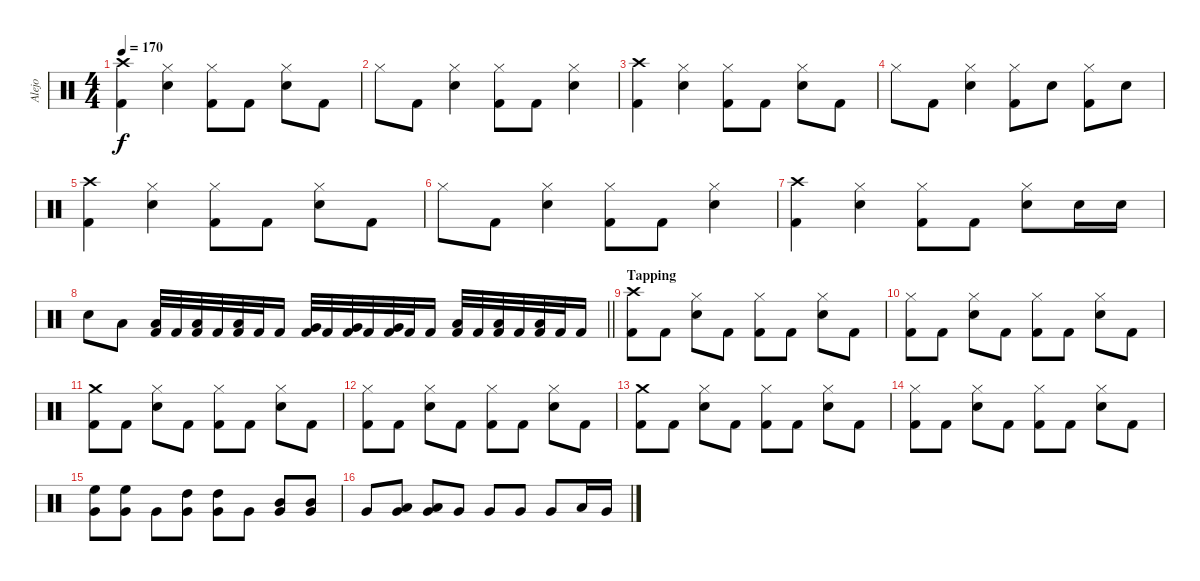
\track ("Alejo" "Alejo") {instrument percussion}
\staff {score}
\articulation defaults
\ts (4 4)
\tempo 170
\clef neutral
\ks c
("Crash high (hit)" "Kick (hit) 2").4{dy f} ("Snare (hit) 2" "Hi-Hat (closed)").4 ("Kick (hit) 2" "Hi-Hat (closed)").8 "Kick (hit) 2".8 ("Snare (hit) 2" "Hi-Hat (closed)").8 "Kick (hit) 2".8 |
"Hi-Hat (closed)".8 "Kick (hit) 2".8 ("Snare (hit) 2" "Hi-Hat (closed)").4 ("Kick (hit) 2" "Hi-Hat (closed)").8 "Kick (hit) 2".8 ("Snare (hit) 2" "Hi-Hat (closed)").4 |
("Crash high (hit)" "Kick (hit) 2").4 ("Snare (hit) 2" "Hi-Hat (closed)").4 ("Kick (hit) 2" "Hi-Hat (closed)").8 "Kick (hit) 2".8 ("Snare (hit) 2" "Hi-Hat (closed)").8 "Kick (hit) 2".8 |
"Hi-Hat (closed)".8 "Kick (hit) 2".8 ("Snare (hit) 2" "Hi-Hat (closed)").4 ("Kick (hit) 2" "Hi-Hat (closed)").8 "Snare (hit) 2".8 ("Kick (hit) 2" "Hi-Hat (closed)").8 "Snare (hit) 2".8 |
("Crash high (hit)" "Kick (hit) 2").4 ("Snare (hit) 2" "Hi-Hat (closed)").4 ("Kick (hit) 2" "Hi-Hat (closed)").8 "Kick (hit) 2".8 ("Snare (hit) 2" "Hi-Hat (closed)").8 "Kick (hit) 2".8 |
"Hi-Hat (closed)".8 "Kick (hit) 2".8 ("Snare (hit) 2" "Hi-Hat (closed)").4 ("Kick (hit) 2" "Hi-Hat (closed)").8 "Kick (hit) 2".8 ("Snare (hit) 2" "Hi-Hat (closed)").4 |
("Crash high (hit)" "Kick (hit) 2").4 ("Snare (hit) 2" "Hi-Hat (closed)").4 ("Kick (hit) 2" "Hi-Hat (closed)").8 "Kick (hit) 2".8 ("Snare (hit) 2" "Hi-Hat (closed)").8 "Snare (hit) 2".16 "Snare (hit) 2".16 |
\barLineRight lightlight "Snare (hit) 2".8 "Low Tom (hit)".8
("Kick (hit) 2" "Low Tom (hit)").32 "Kick (hit) 2".32 ("Kick (hit) 2" "Low Tom (hit)").32 "Kick (hit) 2".32 ("Kick (hit) 2" "Low Tom (hit)").32 "Kick (hit) 2".32 "Kick (hit) 2".16 ("Kick (hit) 2" "Very Low Tom (hit)").32 "Kick (hit) 2".32 ("Kick (hit) 2" "Very Low Tom (hit)").32 "Kick (hit) 2".32 ("Kick (hit) 2" "Very Low Tom (hit)").32 "Kick (hit) 2".32 "Kick (hit) 2".16 ("Kick (hit) 2" "Low Floor Tom (hit)").32 "Kick (hit) 2".32 ("Kick (hit) 2" "Low Floor Tom (hit)").32 "Kick (hit) 2".32 ("Kick (hit) 2" "Low Floor Tom (hit)").32 "Kick (hit) 2".32 "Kick (hit) 2".16 |
\section ("" "Tapping")
("Kick (hit) 2" "Crash high (hit)").8 "Kick (hit) 2".8 ("Snare (hit) 2" "Hi-Hat (closed)").8 "Kick (hit) 2".8 ("Hi-Hat (closed)" "Kick (hit) 2").8 "Kick (hit) 2".8 ("Snare (hit) 2" "Hi-Hat (closed)").8 "Kick (hit) 2".8 |
("Hi-Hat (closed)" "Kick (hit) 2").8 "Kick (hit) 2".8 ("Snare (hit) 2" "Hi-Hat (closed)").8 "Kick (hit) 2".8 ("Hi-Hat (closed)" "Kick (hit) 2").8 "Kick (hit) 2".8 ("Snare (hit) 2" "Hi-Hat (closed)").8 "Kick (hit) 2".8 |
("Crash medium (hit)" "Kick (hit) 2").8 "Kick (hit) 2".8 ("Snare (hit) 2" "Hi-Hat (closed)").8 "Kick (hit) 2".8 ("Hi-Hat (closed)" "Kick (hit) 2").8 "Kick (hit) 2".8 ("Snare (hit) 2" "Hi-Hat (closed)").8 "Kick (hit) 2".8 |
("Hi-Hat (closed)" "Kick (hit) 2").8 "Kick (hit) 2".8 ("Snare (hit) 2" "Hi-Hat (closed)").8 "Kick (hit) 2".8 ("Hi-Hat (closed)" "Kick (hit) 2").8 "Kick (hit) 2".8 ("Snare (hit) 2" "Hi-Hat (closed)").8 "Kick (hit) 2".8 |
("Crash medium (hit)" "Kick (hit) 2").8 "Kick (hit) 2".8 ("Snare (hit) 2" "Hi-Hat (closed)").8 "Kick (hit) 2".8 ("Hi-Hat (closed)" "Kick (hit) 2").8 "Kick (hit) 2".8 ("Snare (hit) 2" "Hi-Hat (closed)").8 "Kick (hit) 2".8 |
("Hi-Hat (closed)" "Kick (hit) 2").8 "Kick (hit) 2".8 ("Snare (hit) 2" "Hi-Hat (closed)").8 "Kick (hit) 2".8 ("Hi-Hat (closed)" "Kick (hit) 2").8 "Kick (hit) 2".8 ("Snare (hit) 2" "Hi-Hat (closed)").8 "Kick (hit) 2".8 |
("High Floor Tom (hit)" "Very Low Tom (hit)").8 ("High Floor Tom (hit)" "Very Low Tom (hit)").8 "Very Low Tom (hit)".8 ("High Tom (hit)" "Very Low Tom (hit)").8 ("High Tom (hit)" "Very Low Tom (hit)").8 "Very Low Tom (hit)".8 ("Very Low Tom (hit)" "Mid Tom (hit)").8 ("Very Low Tom (hit)" "Mid Tom (hit)").8 |
"Very Low Tom (hit)".8 ("Very Low Tom (hit)" "Low Tom (hit)").8 ("Very Low Tom (hit)" "Low Tom (hit)").8 "Very Low Tom (hit)".8 "Very Low Tom (hit)".8 "Very Low Tom (hit)".8 "Very Low Tom (hit)".8 "Low Tom (hit)".16 "Very Low Tom (hit)".16
